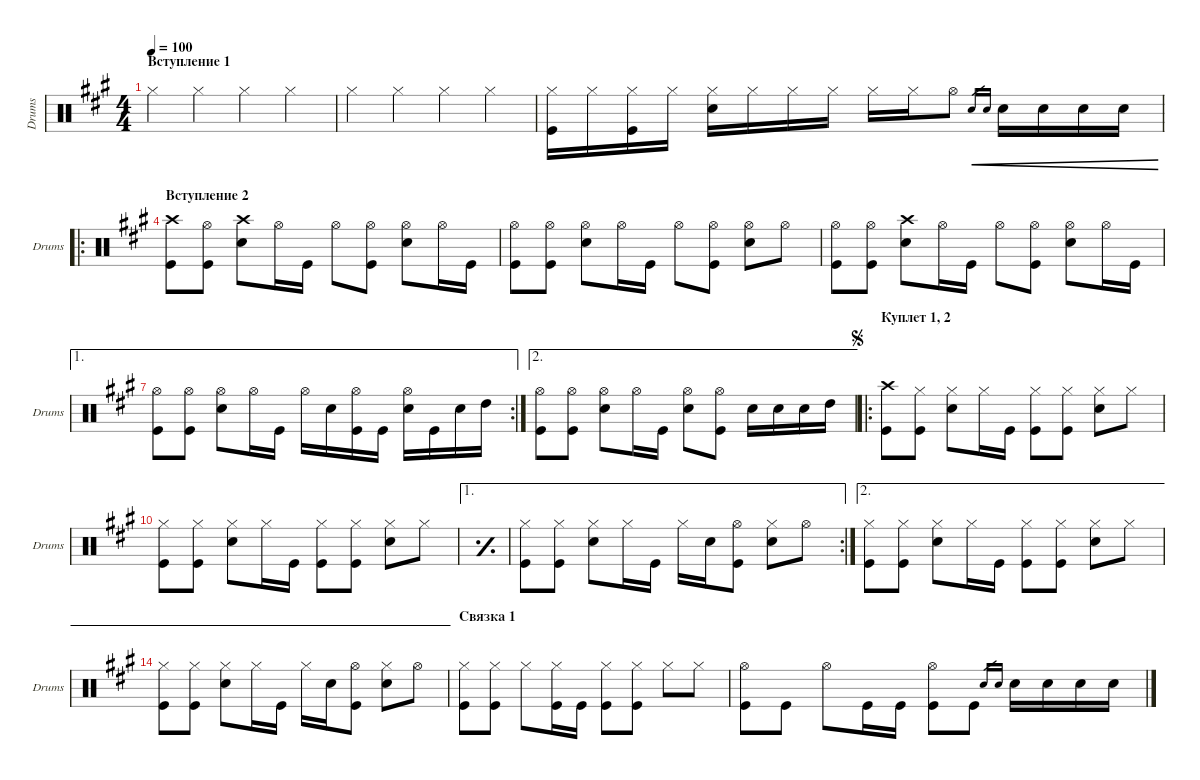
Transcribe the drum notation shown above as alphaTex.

\defaultSystemsLayout 4
\hideDynamics
\bracketExtendMode groupsimilarinstruments
\singleTrackTrackNamePolicy allsystems
\multiTrackTrackNamePolicy allsystems
\otherSystemsTrackNameOrientation horizontal
\defaultBarNumberDisplay FirstOfSystem
\track ("Drumkit" "Drums") {instrument percussion}
\staff {score}
\articulation defaults
\ts (4 4)
\section ("" "Вступление 1")
\tempo 100
\clef neutral
\ks f#minor "Hi-Hat (closed)".4{dy mf} "Hi-Hat (closed)".4 "Hi-Hat (closed)".4 "Hi-Hat (closed)".4
|
"Hi-Hat (closed)".4 "Hi-Hat (closed)".4 "Hi-Hat (closed)".4 "Hi-Hat (closed)".4 |
("Kick (hit)" "Hi-Hat (closed)").16{dy f} "Hi-Hat (closed)".16 ("Kick (hit)" "Hi-Hat (closed)").16 "Hi-Hat (closed)".16 ("Hi-Hat (closed)" "Snare (hit) 2").16 "Hi-Hat (closed)".16 "Hi-Hat (closed)".16 "Hi-Hat (closed)".16 "Hi-Hat (closed)".16 "Hi-Hat (closed)".16 "Hi-Hat (open)".8 "Snare (hit) 2".16{gr cre} "Snare (hit) 2".16{gr cre} "Snare (hit) 2".16{cre} "Snare (hit) 2".16{cre} "Snare (hit) 2".16{cre} "Snare (hit) 2".16{cre} |
\ro
\section ("" "Вступление 2")
("Kick (hit)" "Crash high (hit)").8 ("Kick (hit)" "Hi-Hat (open)").8 ("Snare (hit) 2" "Crash high (hit)").8 "Hi-Hat (open)".16 "Kick (hit)".16 "Hi-Hat (open)".8 ("Kick (hit)" "Hi-Hat (open)").8 ("Snare (hit) 2" "Hi-Hat (open)").8 "Hi-Hat (open)".16 "Kick (hit)".16 |
("Kick (hit)" "Hi-Hat (open)").8 ("Kick (hit)" "Hi-Hat (open)").8 ("Snare (hit) 2" "Hi-Hat (open)").8 "Hi-Hat (open)".16 "Kick (hit)".16 "Hi-Hat (open)".8 ("Kick (hit)" "Hi-Hat (open)").8 ("Snare (hit) 2" "Hi-Hat (open)").8 "Hi-Hat (open)".8 |
("Kick (hit)" "Hi-Hat (open)").8 ("Kick (hit)" "Hi-Hat (open)").8 ("Snare (hit) 2" "Crash high (hit)").8 "Hi-Hat (open)".16 "Kick (hit)".16 "Hi-Hat (open)".8 ("Kick (hit)" "Hi-Hat (open)").8 ("Snare (hit) 2" "Hi-Hat (open)").8 "Hi-Hat (open)".16 "Kick (hit)".16 |
\ae 1
\rc 2
("Kick (hit)" "Hi-Hat (open)").8 ("Kick (hit)" "Hi-Hat (open)").8 ("Snare (hit) 2" "Hi-Hat (open)").8 "Hi-Hat (open)".16 "Kick (hit)".16 "Hi-Hat (open)".16 "Snare (hit) 2".16 ("Kick (hit)" "Hi-Hat (open)").16 "Kick (hit)".16 ("Snare (hit) 2" "Hi-Hat (open)").16 "Kick (hit)".16 "Snare (hit) 2".16 "High Tom (hit)".16 |
\ae 2
("Kick (hit)" "Hi-Hat (open)").8 ("Kick (hit)" "Hi-Hat (open)").8 ("Snare (hit) 2" "Hi-Hat (open)").8 "Hi-Hat (open)".16 "Kick (hit)".16 ("Hi-Hat (open)" "Snare (hit) 2").8 ("Kick (hit)" "Hi-Hat (open)").8 "Snare (hit) 2".16 "Snare (hit) 2".16 "Snare (hit) 2".16 "High Tom (hit)".16 |
\ro
\section ("" "Куплет 1, 2")
\jump segno
("Kick (hit)" "Crash high (hit)").8 ("Kick (hit)" "Hi-Hat (closed)").8 ("Snare (hit) 2" "Hi-Hat (closed)").8 "Hi-Hat (closed)".16 "Kick (hit)".16 ("Kick (hit)" "Hi-Hat (closed)").8 ("Kick (hit)" "Hi-Hat (closed)").8 ("Snare (hit) 2" "Hi-Hat (closed)").8 "Hi-Hat (closed)".8 |
("Kick (hit)" "Hi-Hat (closed)").8 ("Kick (hit)" "Hi-Hat (closed)").8 ("Snare (hit) 2" "Hi-Hat (closed)").8 "Hi-Hat (closed)".16 "Kick (hit)".16 ("Kick (hit)" "Hi-Hat (closed)").8 ("Kick (hit)" "Hi-Hat (closed)").8 ("Snare (hit) 2" "Hi-Hat (closed)").8 "Hi-Hat (closed)".8 |
\ae 1
\simile simple
|
\ae 1
\rc 2
\simile none
("Kick (hit)" "Hi-Hat (closed)").8 ("Kick (hit)" "Hi-Hat (closed)").8 ("Snare (hit) 2" "Hi-Hat (closed)").8 "Hi-Hat (closed)".16 "Kick (hit)".16 "Hi-Hat (closed)".16 "Snare (hit) 2".16 ("Kick (hit)" "Hi-Hat (open)").8 ("Snare (hit) 2" "Hi-Hat (closed)").8 "Hi-Hat (open)".8 |
\ae 2
("Kick (hit)" "Hi-Hat (closed)").8 ("Kick (hit)" "Hi-Hat (closed)").8 ("Snare (hit) 2" "Hi-Hat (closed)").8 "Hi-Hat (closed)".16 "Kick (hit)".16 ("Kick (hit)" "Hi-Hat (closed)").8 ("Kick (hit)" "Hi-Hat (closed)").8 ("Snare (hit) 2" "Hi-Hat (closed)").8 "Hi-Hat (closed)".8 |
\ae 2
("Kick (hit)" "Hi-Hat (closed)").8 ("Kick (hit)" "Hi-Hat (closed)").8 ("Snare (hit) 2" "Hi-Hat (closed)").8 "Hi-Hat (closed)".16 "Kick (hit)".16 "Hi-Hat (closed)".16 "Snare (hit) 2".16 ("Kick (hit)" "Hi-Hat (open)").8 ("Snare (hit) 2" "Hi-Hat (closed)").8 "Hi-Hat (open)".8 |
\section ("" "Связка 1")
("Hi-Hat (closed)" "Kick (hit)").8 ("Hi-Hat (closed)" "Kick (hit)").8 "Hi-Hat (closed)".8 ("Hi-Hat (closed)" "Kick (hit)").16 "Kick (hit)".16 ("Hi-Hat (closed)" "Kick (hit)").8 ("Hi-Hat (closed)" "Kick (hit)").8 "Hi-Hat (closed)".8 "Hi-Hat (closed)".8 |
("Hi-Hat (open)" "Kick (hit)").8 "Kick (hit)".8 "Hi-Hat (open)".8 "Kick (hit)".16 "Kick (hit)".16 ("Hi-Hat (open)" "Kick (hit)").8 "Kick (hit)".8 "Snare (hit) 2".16{gr} "Snare (hit) 2".16{gr} "Snare (hit) 2".16 "Snare (hit) 2".16 "Snare (hit) 2".16 "Snare (hit) 2".16
